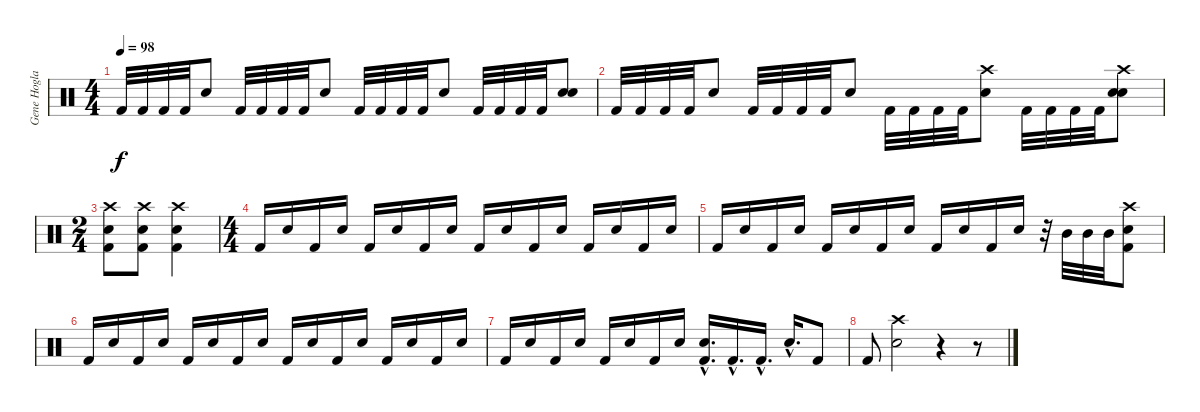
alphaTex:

\track ("Gene Hoglan" "Gene Hogla") {instrument percussion}
\staff {score}
\articulation defaults
\ts (4 4)
\tempo 98
\clef neutral
\ks c "Kick (hit) 2".32{dy f} "Kick (hit) 2".32 "Kick (hit) 2".32 "Kick (hit) 2".32 "Electric Snare (hit)".8 "Kick (hit) 2".32 "Kick (hit) 2".32 "Kick (hit) 2".32 "Kick (hit) 2".32 "Electric Snare (hit)".8 "Kick (hit) 2".32 "Kick (hit) 2".32 "Kick (hit) 2".32 "Kick (hit) 2".32 "Electric Snare (hit)".8 "Kick (hit) 2".32 "Kick (hit) 2".32 "Kick (hit) 2".32 "Kick (hit) 2".32
("Electric Snare (hit)" "Snare (hit)").8 |
"Kick (hit) 2".32 "Kick (hit) 2".32 "Kick (hit) 2".32 "Kick (hit) 2".32 "Electric Snare (hit)".8 "Kick (hit) 2".32 "Kick (hit) 2".32 "Kick (hit) 2".32 "Kick (hit) 2".32 "Electric Snare (hit)".8 "Kick (hit) 2".32 "Kick (hit) 2".32 "Kick (hit) 2".32 "Kick (hit) 2".32 ("Crash high (hit)" "Electric Snare (hit)").8 "Kick (hit) 2".32 "Kick (hit) 2".32 "Kick (hit) 2".32 "Kick (hit) 2".32 ("Crash high (hit)" "Electric Snare (hit)" "Snare (hit)").8 |
\ts (2 4)
("Electric Snare (hit)" "Crash high (hit)" "Kick (hit) 2").8 ("Electric Snare (hit)" "Crash high (hit)" "Kick (hit) 2").8 ("Electric Snare (hit)" "Crash high (hit)" "Kick (hit) 2").4 |
\ts (4 4)
"Kick (hit) 2".16 "Electric Snare (hit)".16 "Kick (hit) 2".16 "Electric Snare (hit)".16 "Kick (hit) 2".16 "Electric Snare (hit)".16 "Kick (hit) 2".16 "Electric Snare (hit)".16 "Kick (hit) 2".16 "Electric Snare (hit)".16 "Kick (hit) 2".16 "Electric Snare (hit)".16 "Kick (hit) 2".16 "Electric Snare (hit)".16 "Kick (hit) 2".16 "Electric Snare (hit)".16 |
"Kick (hit) 2".16 "Electric Snare (hit)".16 "Kick (hit) 2".16 "Electric Snare (hit)".16 "Kick (hit) 2".16 "Electric Snare (hit)".16 "Kick (hit) 2".16 "Electric Snare (hit)".16 "Kick (hit) 2".16 "Electric Snare (hit)".16 "Kick (hit) 2".16 "Electric Snare (hit)".16 r.32 "Mid Tom (hit)".32 "Mid Tom (hit)".32 "Mid Tom (hit)".32 ("Kick (hit) 2" "Crash high (hit)" "Electric Snare (hit)").8 |
"Kick (hit) 2".16 "Electric Snare (hit)".16 "Kick (hit) 2".16 "Electric Snare (hit)".16 "Kick (hit) 2".16 "Electric Snare (hit)".16 "Kick (hit) 2".16 "Electric Snare (hit)".16 "Kick (hit) 2".16 "Electric Snare (hit)".16 "Kick (hit) 2".16 "Electric Snare (hit)".16 "Kick (hit) 2".16 "Electric Snare (hit)".16 "Kick (hit) 2".16 "Electric Snare (hit)".16 |
"Kick (hit) 2".16 "Electric Snare (hit)".16 "Kick (hit) 2".16 "Electric Snare (hit)".16 "Kick (hit) 2".16 "Electric Snare (hit)".16 "Kick (hit) 2".16 "Electric Snare (hit)".16 ("Kick (hit) 2"{hac} "Electric Snare (hit)"{hac}).16{d} "Kick (hit) 2"{hac}.16{d} "Kick (hit) 2"{hac}.16{d} "Electric Snare (hit)"{hac}.16{d} "Kick (hit) 2".8 |
"Kick (hit) 2".8 ("Crash high (hit)" "Electric Snare (hit)").2 r.4 r.8
